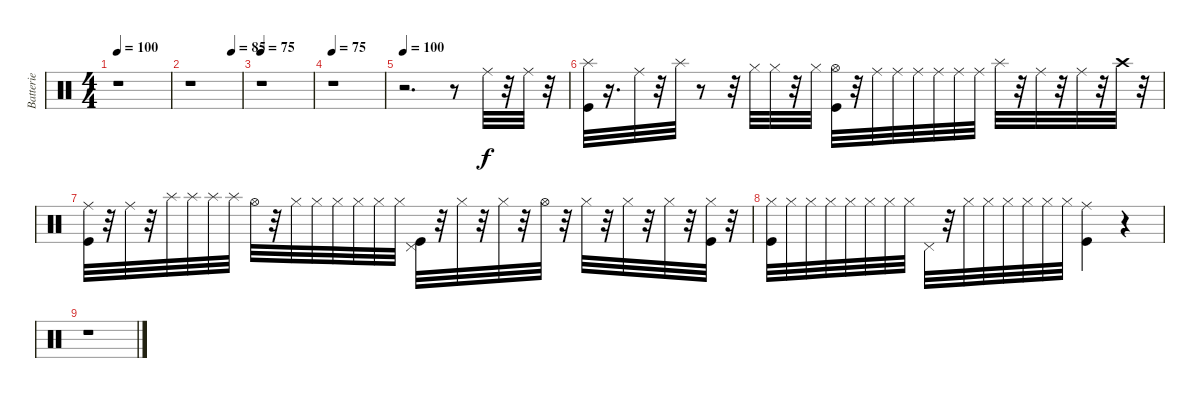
\track ("Batterie" "Batterie") {instrument percussion}
\staff {score}
\articulation defaults
\ts (4 4)
\tempo 100
\clef neutral
\ks c
r.1{dy f} |
\tempo (85 0.8125)
r.1 |
\tempo 75
r.1 |
\tempo 75
r.1 |
\tempo 100
r.2{d} r.8 "Ride (middle)".32 r.32 "Ride (middle)".32 r.32 |
("Kick (hit)" "Splash (hit)").32 r.16{d} "Ride (middle)".32 r.32 "Splash (hit)".32 r.8 r.32 "Hi-Hat (closed)".32 "Hi-Hat (closed)".32 r.32 "Hi-Hat (closed)".32 ("Hi-Hat (open)" "Kick (hit)").32 r.32 "Ride (middle)".32 "Ride (middle)".32 "Ride (middle)".32 "Ride (middle)".32 "Ride (middle)".32 "Ride (middle)".32 "Splash (hit)".32 r.32 "Ride (middle)".32 r.32 "Ride (middle)".32 r.32 "Crash high (hit)".32 r.32 |
("Ride (middle)" "Kick (hit)").32 r.32 "Ride (middle)".32 r.32 "Splash (hit)".32 "Splash (hit)".32 "Splash (hit)".32 "Splash (hit)".32 "Hi-Hat (open)".32 r.32 "Hi-Hat (closed)".32 "Hi-Hat (closed)".32 "Hi-Hat (closed)".32 "Hi-Hat (closed)".32 "Hi-Hat (closed)".32 "Hi-Hat (closed)".32 ("Pedal Hi-Hat (hit)" "Kick (hit)").32 r.32 "Hi-Hat (closed)".32 r.32 "Hi-Hat (closed)".32 r.32 "Hi-Hat (open)".32 r.32 "Hi-Hat (closed)".32 r.32 "Hi-Hat (closed)".32 r.32 "Hi-Hat (closed)".32 r.32 ("Hi-Hat (closed)" "Kick (hit)").32 r.32 |
("Hi-Hat (closed)" "Kick (hit)").32 "Hi-Hat (closed)".32 "Hi-Hat (closed)".32 "Hi-Hat (closed)".32 "Hi-Hat (closed)".32 "Hi-Hat (closed)".32 "Hi-Hat (closed)".32 "Hi-Hat (closed)".32 "Pedal Hi-Hat (hit)".32 r.32 "Hi-Hat (closed)".32 "Hi-Hat (closed)".32 "Hi-Hat (closed)".32 "Hi-Hat (closed)".32 "Hi-Hat (closed)".32 "Hi-Hat (closed)".32 ("Ride (middle)" "Kick (hit)").4 r.4 |
r.1
